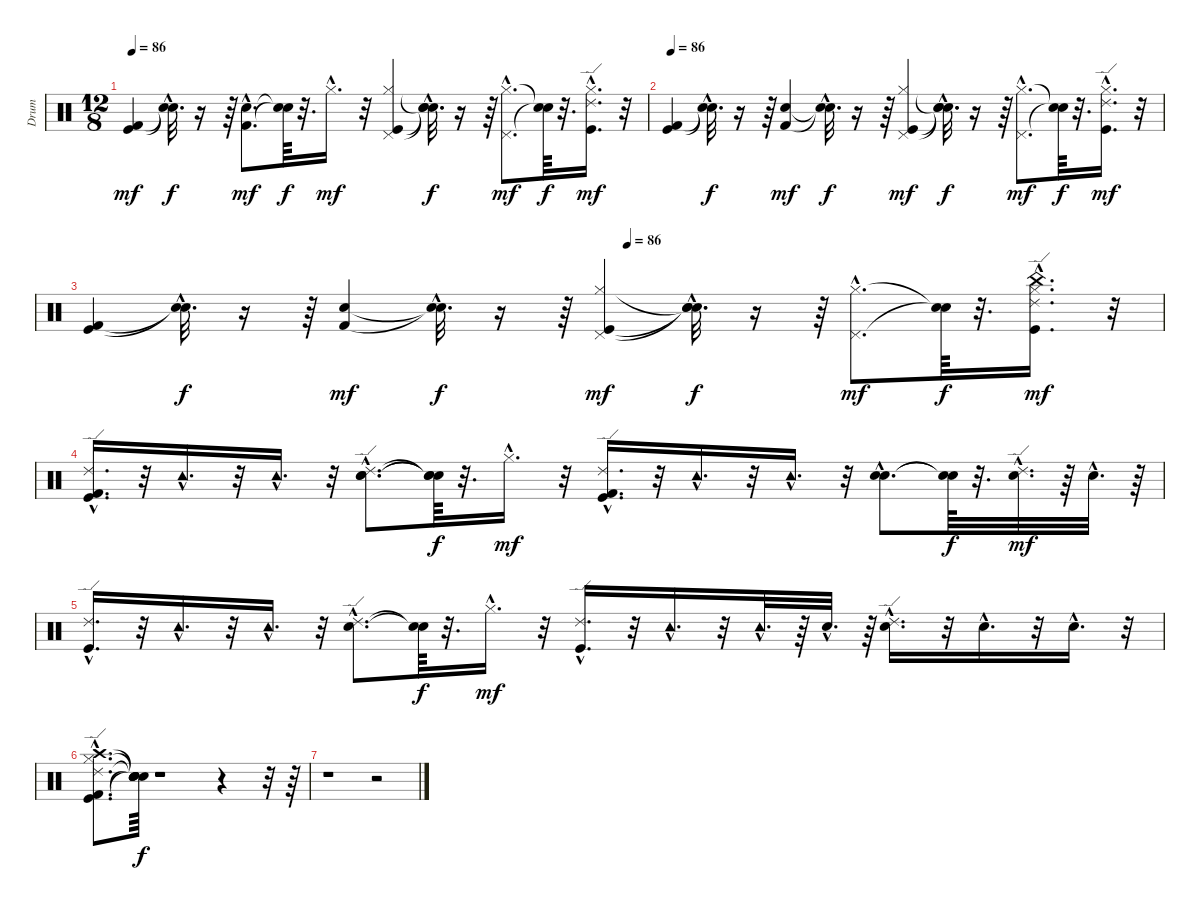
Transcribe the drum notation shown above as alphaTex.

\track ("Drum" "Drum") {instrument percussion}
\staff {score}
\articulation defaults
\ts (12 8)
\tempo 86
\clef neutral
\ks c
("Kick (hit)" "Kick (hit) 2").4{dy mf} ("Snare (hit)"{hac t} "Snare (hit)"{hac t}).32{d dy f} r.16 r.64 ("Snare (hit) 2"{hac} "Kick (hit) 2"{hac}).8{d dy mf} ("Snare (hit)"{t} "Snare (hit)"{t}).64{dy f} r.32{d} "Hi-Hat (closed)"{hac}.16{d dy mf} r.32 ("Hi-Hat (closed)" "Pedal Hi-Hat (hit)" "Kick (hit)").4 ("Snare (hit)"{hac t} "Snare (hit)"{hac t} "Snare (hit)"{hac t}).32{d dy f} r.16 r.64 ("Hi-Hat (closed)"{hac} "Pedal Hi-Hat (hit)"{hac}).8{d dy mf} ("Snare (hit)"{t} "Snare (hit)"{t}).64{dy f} r.32{d} ("Hi-Hat (closed)"{hac} "Kick (hit)"{hac} "Ride (edge) 2"{hac}).16{d dy mf} r.32 |
\tempo 86
("Kick (hit) 2" "Kick (hit)").4 ("Snare (hit)"{hac t} "Snare (hit)"{hac t}).32{d dy f} r.16 r.64 ("Snare (hit) 2" "Kick (hit) 2").4{dy mf} ("Snare (hit)"{hac t} "Snare (hit)"{hac t}).32{d dy f} r.16 r.64 ("Hi-Hat (closed)" "Pedal Hi-Hat (hit)" "Kick (hit)").4{dy mf} ("Snare (hit)"{hac t} "Snare (hit)"{hac t} "Snare (hit)"{hac t}).32{d dy f} r.16 r.64 ("Pedal Hi-Hat (hit)"{hac} "Hi-Hat (closed)"{hac}).8{d dy mf} ("Snare (hit)"{t} "Snare (hit)"{t}).64{dy f} r.32{d} ("Hi-Hat (closed)"{hac} "Kick (hit)"{hac} "Ride (edge) 2"{hac}).16{d dy mf} r.32 |
\tempo (86 0.5)
("Kick (hit) 2" "Kick (hit)").4 ("Snare (hit)"{hac t} "Snare (hit)"{hac t}).32{d dy f} r.16 r.64 ("Kick (hit) 2" "Snare (hit) 2").4{dy mf} ("Snare (hit)"{hac t} "Snare (hit)"{hac t}).32{d dy f} r.16 r.64 ("Kick (hit)" "Pedal Hi-Hat (hit)" "Hi-Hat (closed)").4{dy mf} ("Snare (hit)"{hac t} "Snare (hit)"{hac t} "Snare (hit)"{hac t}).32{d dy f} r.16 r.64 ("Hi-Hat (closed)"{hac} "Pedal Hi-Hat (hit)"{hac}).8{d dy mf} ("Snare (hit)"{t} "Snare (hit)"{t}).64{dy f} r.32{d} ("Ride (edge) 2"{hac} "Kick (hit)"{hac} "Hi-Hat (closed)"{hac} "China (hit)"{hac}).16{d dy mf} r.32 |
("Kick (hit)"{hac} "Kick (hit) 2"{hac} "Ride (edge) 2"{hac}).16{d} r.32 "Tambourine (hit)"{hac}.16{d} r.32 "Tambourine (hit)"{hac}.16{d} r.32 ("Ride (edge) 2"{hac} "Snare (hit) 2"{hac} "Electric Snare (hit)"{hac}).8{d} ("Snare (hit)"{t} "Snare (hit)"{t} "Snare (hit)"{t}).64{dy f} r.32{d} "Hi-Hat (closed)"{hac}.16{d dy mf} r.32 ("Ride (edge) 2"{hac} "Kick (hit)"{hac} "Kick (hit) 2"{hac}).16{d} r.32 "Tambourine (hit)"{hac}.16{d} r.32 "Tambourine (hit)"{hac}.16{d} r.32 ("Electric Snare (hit)"{hac} "Snare (hit) 2"{hac}).8{d} ("Snare (hit)"{t} "Snare (hit)"{t}).64{dy f} r.32{d} ("Snare (hit) 2"{hac} "Ride (edge) 2"{hac}).32{d dy mf} r.64 "Snare (hit) 2"{hac}.32{d} r.64 |
("Kick (hit)"{hac} "Ride (edge) 2"{hac}).16{d} r.32 "Tambourine (hit)"{hac}.16{d} r.32 "Tambourine (hit)"{hac}.16{d} r.32 ("Ride (edge) 2"{hac} "Snare (hit) 2"{hac}).8{d} ("Snare (hit)"{t} "Snare (hit)"{t}).64{dy f} r.32{d} "Hi-Hat (closed)"{hac}.16{d dy mf} r.32 ("Ride (edge) 2"{hac} "Kick (hit)"{hac}).16{d} r.32 "Tambourine (hit)"{hac}.16{d} r.32 "Tambourine (hit)"{hac}.32{d} r.64 "Snare (hit) 2"{hac}.32{d} r.64 ("Ride (edge) 2"{hac} "Snare (hit) 2"{hac}).16{d} r.32 "Snare (hit) 2"{hac}.16{d} r.32 "Snare (hit) 2"{hac}.16{d} r.32 |
("Kick (hit) 2"{hac} "Ride (edge) 2"{hac} "Hi-Hat (closed)"{hac} "Crash high (hit)"{hac} "Kick (hit)"{hac}).8{d} ("Snare (hit)"{t} "Snare (hit)"{t} "Snare (hit)"{t} "Snare (hit)"{t} "Snare (hit)"{t}).64{dy f} r.1 r.4 r.32 r.64 |
r.1 r.2
